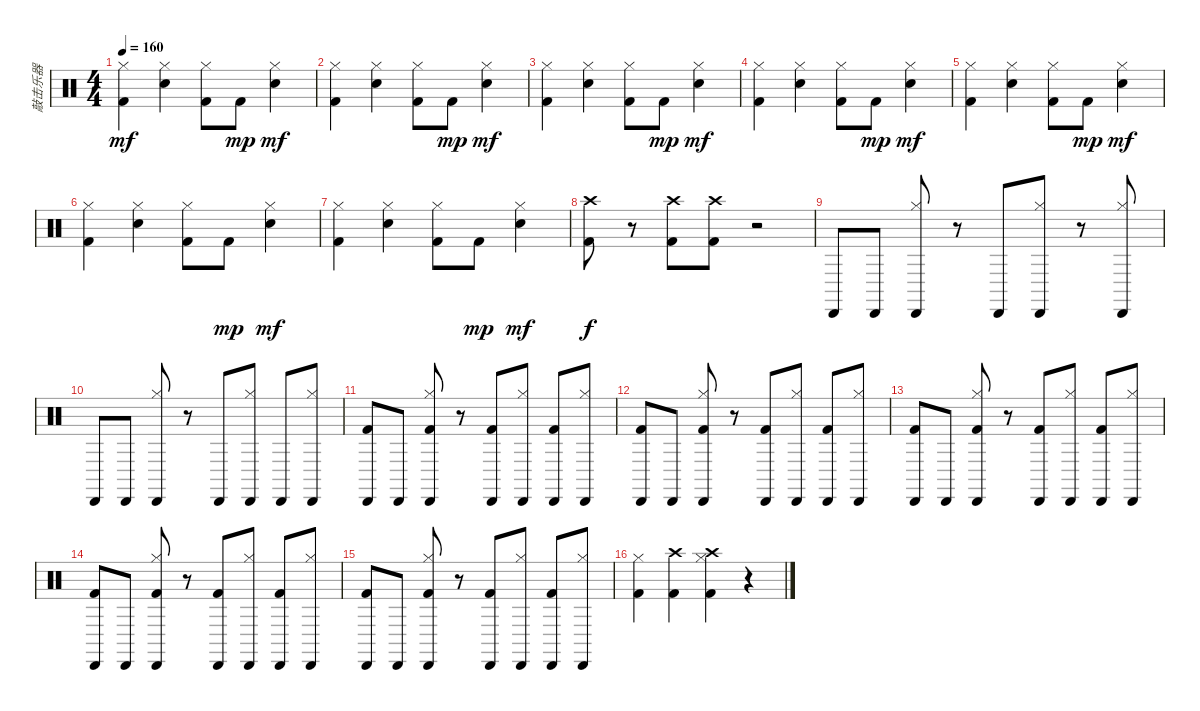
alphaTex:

\track ("敲击乐器" "敲击乐器") {instrument percussion}
\staff {score}
\articulation defaults
\ts (4 4)
\tempo 160
\clef neutral
\ks c
("Hi-Hat (closed)" "Kick (hit) 2").4{dy mf} ("Snare (hit) 2" "Hi-Hat (closed)").4 ("Hi-Hat (closed)" "Kick (hit) 2").8 "Kick (hit) 2".8{dy mp} ("Snare (hit) 2" "Hi-Hat (closed)").4{dy mf} |
("Hi-Hat (closed)" "Kick (hit) 2").4 ("Snare (hit) 2" "Hi-Hat (closed)").4 ("Hi-Hat (closed)" "Kick (hit) 2").8 "Kick (hit) 2".8{dy mp} ("Snare (hit) 2" "Hi-Hat (closed)").4{dy mf} |
("Hi-Hat (closed)" "Kick (hit) 2").4 ("Snare (hit) 2" "Hi-Hat (closed)").4 ("Hi-Hat (closed)" "Kick (hit) 2").8 "Kick (hit) 2".8{dy mp} ("Snare (hit) 2" "Hi-Hat (closed)").4{dy mf} |
("Hi-Hat (closed)" "Kick (hit) 2").4 ("Snare (hit) 2" "Hi-Hat (closed)").4 ("Hi-Hat (closed)" "Kick (hit) 2").8 "Kick (hit) 2".8{dy mp} ("Snare (hit) 2" "Hi-Hat (closed)").4{dy mf} |
("Hi-Hat (closed)" "Kick (hit) 2").4 ("Snare (hit) 2" "Hi-Hat (closed)").4 ("Hi-Hat (closed)" "Kick (hit) 2").8 "Kick (hit) 2".8{dy mp} ("Snare (hit) 2" "Hi-Hat (closed)").4{dy mf} |
("Hi-Hat (closed)" "Kick (hit) 2").4 ("Snare (hit) 2" "Hi-Hat (closed)").4 ("Hi-Hat (closed)" "Kick (hit) 2").8 "Kick (hit) 2".8{dy mp} ("Snare (hit) 2" "Hi-Hat (closed)").4{dy mf} |
("Hi-Hat (closed)" "Kick (hit) 2").4 ("Snare (hit) 2" "Hi-Hat (closed)").4 ("Hi-Hat (closed)" "Kick (hit) 2").8 "Kick (hit) 2".8{dy mp} ("Snare (hit) 2" "Hi-Hat (closed)").4{dy mf} |
("Crash high (hit)" "Kick (hit) 2").8{dy f} r.8 ("Crash high (hit)" "Kick (hit) 2").8 ("Crash high (hit)" "Kick (hit) 2").8 r.2 |
"Cabasa (hit)".8 "Cabasa (hit)".8 ("Cabasa (hit)" "Hi-Hat (closed)").8 r.8 "Cabasa (hit)".8 ("Cabasa (hit)" "Hi-Hat (closed)").8 r.8 ("Cabasa (hit)" "Hi-Hat (closed)").8 |
"Cabasa (hit)".8 "Cabasa (hit)".8 ("Cabasa (hit)" "Hi-Hat (closed)").8 r.8 "Cabasa (hit)".8 ("Cabasa (hit)" "Hi-Hat (closed)").8 "Cabasa (hit)".8 ("Cabasa (hit)" "Hi-Hat (closed)").8 |
("Cabasa (hit)" "Kick (hit) 2").8 "Cabasa (hit)".8 ("Cabasa (hit)" "Hi-Hat (closed)" "Kick (hit) 2").8 r.8 ("Cabasa (hit)" "Kick (hit) 2").8 ("Cabasa (hit)" "Hi-Hat (closed)").8 ("Cabasa (hit)" "Kick (hit) 2").8 ("Cabasa (hit)" "Hi-Hat (closed)").8 |
("Cabasa (hit)" "Kick (hit) 2").8 "Cabasa (hit)".8 ("Cabasa (hit)" "Hi-Hat (closed)" "Kick (hit) 2").8 r.8 ("Cabasa (hit)" "Kick (hit) 2").8 ("Cabasa (hit)" "Hi-Hat (closed)").8 ("Cabasa (hit)" "Kick (hit) 2").8 ("Cabasa (hit)" "Hi-Hat (closed)").8 |
("Cabasa (hit)" "Kick (hit) 2").8 "Cabasa (hit)".8 ("Cabasa (hit)" "Hi-Hat (closed)" "Kick (hit) 2").8 r.8 ("Cabasa (hit)" "Kick (hit) 2").8 ("Cabasa (hit)" "Hi-Hat (closed)").8 ("Cabasa (hit)" "Kick (hit) 2").8 ("Cabasa (hit)" "Hi-Hat (closed)").8 |
("Cabasa (hit)" "Kick (hit) 2").8 "Cabasa (hit)".8 ("Cabasa (hit)" "Hi-Hat (closed)" "Kick (hit) 2").8 r.8 ("Cabasa (hit)" "Kick (hit) 2").8 ("Cabasa (hit)" "Hi-Hat (closed)").8 ("Cabasa (hit)" "Kick (hit) 2").8 ("Cabasa (hit)" "Hi-Hat (closed)").8 |
("Cabasa (hit)" "Kick (hit) 2").8 "Cabasa (hit)".8 ("Cabasa (hit)" "Hi-Hat (closed)" "Kick (hit) 2").8 r.8 ("Cabasa (hit)" "Kick (hit) 2").8 ("Cabasa (hit)" "Hi-Hat (closed)").8 ("Cabasa (hit)" "Kick (hit) 2").8 ("Cabasa (hit)" "Hi-Hat (closed)").8 |
("Hi-Hat (closed)" "Kick (hit) 2").4 ("Crash high (hit)" "Kick (hit) 2").4 ("Crash high (hit)" "Hi-Hat (closed)" "Kick (hit) 2").4 r.4
